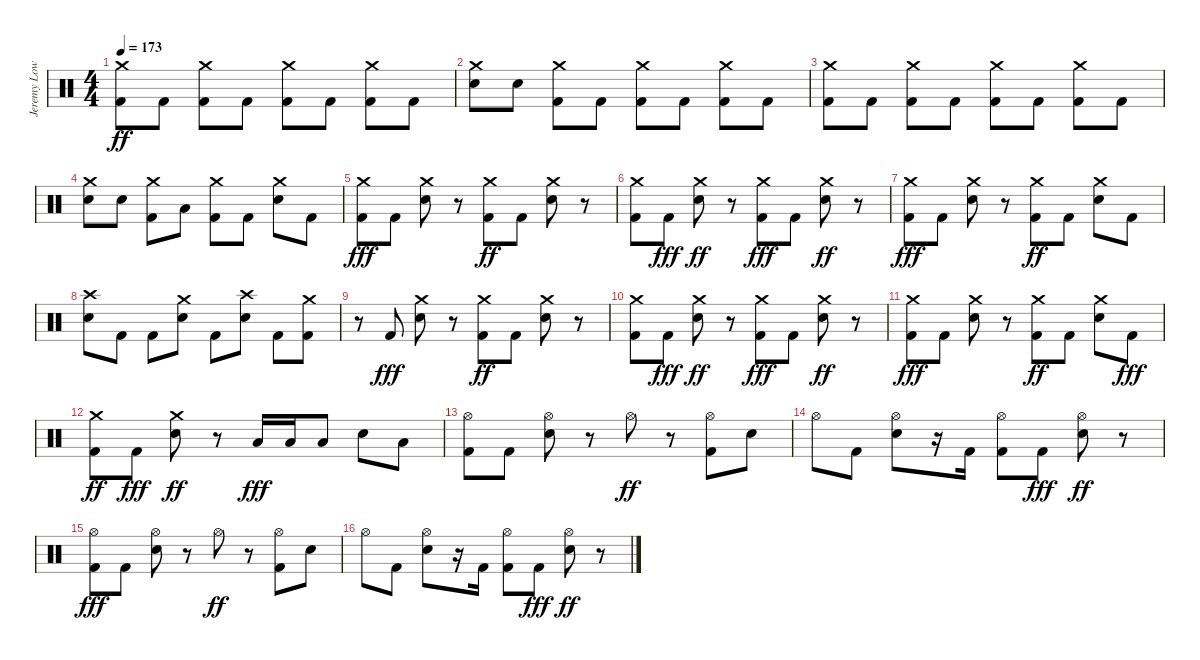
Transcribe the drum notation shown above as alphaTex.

\track ("Jeremy Lowery" "Jeremy Low") {instrument percussion}
\staff {score}
\articulation defaults
\ts (4 4)
\tempo 173
\clef neutral
\ks c
("Crash medium (hit)" "Kick (hit) 2").8{dy ff} "Kick (hit) 2".8 ("Crash medium (hit)" "Kick (hit) 2").8 "Kick (hit) 2".8 ("Crash medium (hit)" "Kick (hit) 2").8 "Kick (hit) 2".8 ("Crash medium (hit)" "Kick (hit) 2").8 "Kick (hit) 2".8 |
("Crash medium (hit)" "Electric Snare (hit)").8 "Electric Snare (hit)".8 ("Crash medium (hit)" "Kick (hit) 2").8 "Kick (hit) 2".8 ("Crash medium (hit)" "Kick (hit) 2").8 "Kick (hit) 2".8 ("Crash medium (hit)" "Kick (hit) 2").8 "Kick (hit) 2".8 |
("Crash medium (hit)" "Kick (hit) 2").8 "Kick (hit) 2".8 ("Crash medium (hit)" "Kick (hit) 2").8 "Kick (hit) 2".8 ("Crash medium (hit)" "Kick (hit) 2").8 "Kick (hit) 2".8 ("Crash medium (hit)" "Kick (hit) 2").8 "Kick (hit) 2".8 |
("Crash medium (hit)" "Electric Snare (hit)").8 "Electric Snare (hit)".8 ("Crash medium (hit)" "Kick (hit) 2").8 "Low Floor Tom (hit)".8 ("Crash medium (hit)" "Kick (hit) 2").8 "Kick (hit) 2".8 ("Crash medium (hit)" "Electric Snare (hit)").8 "Kick (hit) 2".8 |
("Crash medium (hit)" "Kick (hit) 2").8{dy fff} "Kick (hit) 2".8 ("Crash medium (hit)" "Electric Snare (hit)").8 r.8 ("Crash medium (hit)" "Kick (hit) 2").8{dy ff} "Kick (hit) 2".8 ("Crash medium (hit)" "Electric Snare (hit)").8 r.8 |
("Crash medium (hit)" "Kick (hit) 2").8 "Kick (hit) 2".8{dy fff} ("Crash medium (hit)" "Electric Snare (hit)").8{dy ff} r.8 ("Crash medium (hit)" "Kick (hit) 2").8{dy fff} "Kick (hit) 2".8 ("Crash medium (hit)" "Electric Snare (hit)").8{dy ff} r.8 |
("Crash medium (hit)" "Kick (hit) 2").8{dy fff} "Kick (hit) 2".8 ("Crash medium (hit)" "Electric Snare (hit)").8 r.8 ("Crash medium (hit)" "Kick (hit) 2").8{dy ff} "Kick (hit) 2".8 ("Crash medium (hit)" "Electric Snare (hit)").8 "Kick (hit) 2".8 |
("Crash high (hit)" "Electric Snare (hit)").8 "Kick (hit) 2".8 "Kick (hit) 2".8 ("Crash medium (hit)" "Electric Snare (hit)").8 "Kick (hit) 2".8 ("Crash high (hit)" "Electric Snare (hit)").8 "Kick (hit) 2".8 ("Crash medium (hit)" "Kick (hit) 2").8 |
r.8 "Kick (hit) 2".8{dy fff} ("Crash medium (hit)" "Electric Snare (hit)").8 r.8 ("Crash medium (hit)" "Kick (hit) 2").8{dy ff} "Kick (hit) 2".8 ("Crash medium (hit)" "Electric Snare (hit)").8 r.8 |
("Crash medium (hit)" "Kick (hit) 2").8 "Kick (hit) 2".8{dy fff} ("Crash medium (hit)" "Electric Snare (hit)").8{dy ff} r.8 ("Crash medium (hit)" "Kick (hit) 2").8{dy fff} "Kick (hit) 2".8 ("Crash medium (hit)" "Electric Snare (hit)").8{dy ff} r.8 |
("Crash medium (hit)" "Kick (hit) 2").8{dy fff} "Kick (hit) 2".8 ("Crash medium (hit)" "Electric Snare (hit)").8 r.8 ("Crash medium (hit)" "Kick (hit) 2").8{dy ff} "Kick (hit) 2".8 ("Crash medium (hit)" "Electric Snare (hit)").8 "Kick (hit) 2".8{dy fff} |
("Crash medium (hit)" "Kick (hit) 2").8{dy ff} "Kick (hit) 2".8{dy fff} ("Crash medium (hit)" "Electric Snare (hit)").8{dy ff} r.8 "Low Floor Tom (hit)".16{dy fff} "Low Floor Tom (hit)".16 "Low Floor Tom (hit)".8 "Electric Snare (hit)".8 "Low Floor Tom (hit)".8 |
("Hi-Hat (open)" "Kick (hit) 2").8 "Kick (hit) 2".8 ("Hi-Hat (open)" "Electric Snare (hit)").8 r.8 "Hi-Hat (open)".8{dy ff} r.8 ("Hi-Hat (open)" "Kick (hit) 2").8 "Electric Snare (hit)".8 |
"Hi-Hat (open)".8 "Kick (hit) 2".8 ("Hi-Hat (open)" "Electric Snare (hit)").8 r.16 "Kick (hit) 2".16 ("Hi-Hat (open)" "Kick (hit) 2").8 "Kick (hit) 2".8{dy fff} ("Hi-Hat (open)" "Electric Snare (hit)").8{dy ff} r.8 |
("Hi-Hat (open)" "Kick (hit) 2").8{dy fff} "Kick (hit) 2".8 ("Hi-Hat (open)" "Electric Snare (hit)").8 r.8 "Hi-Hat (open)".8{dy ff} r.8 ("Hi-Hat (open)" "Kick (hit) 2").8 "Electric Snare (hit)".8 |
"Hi-Hat (open)".8 "Kick (hit) 2".8 ("Hi-Hat (open)" "Electric Snare (hit)").8 r.16 "Kick (hit) 2".16 ("Hi-Hat (open)" "Kick (hit) 2").8 "Kick (hit) 2".8{dy fff} ("Hi-Hat (open)" "Electric Snare (hit)").8{dy ff} r.8
